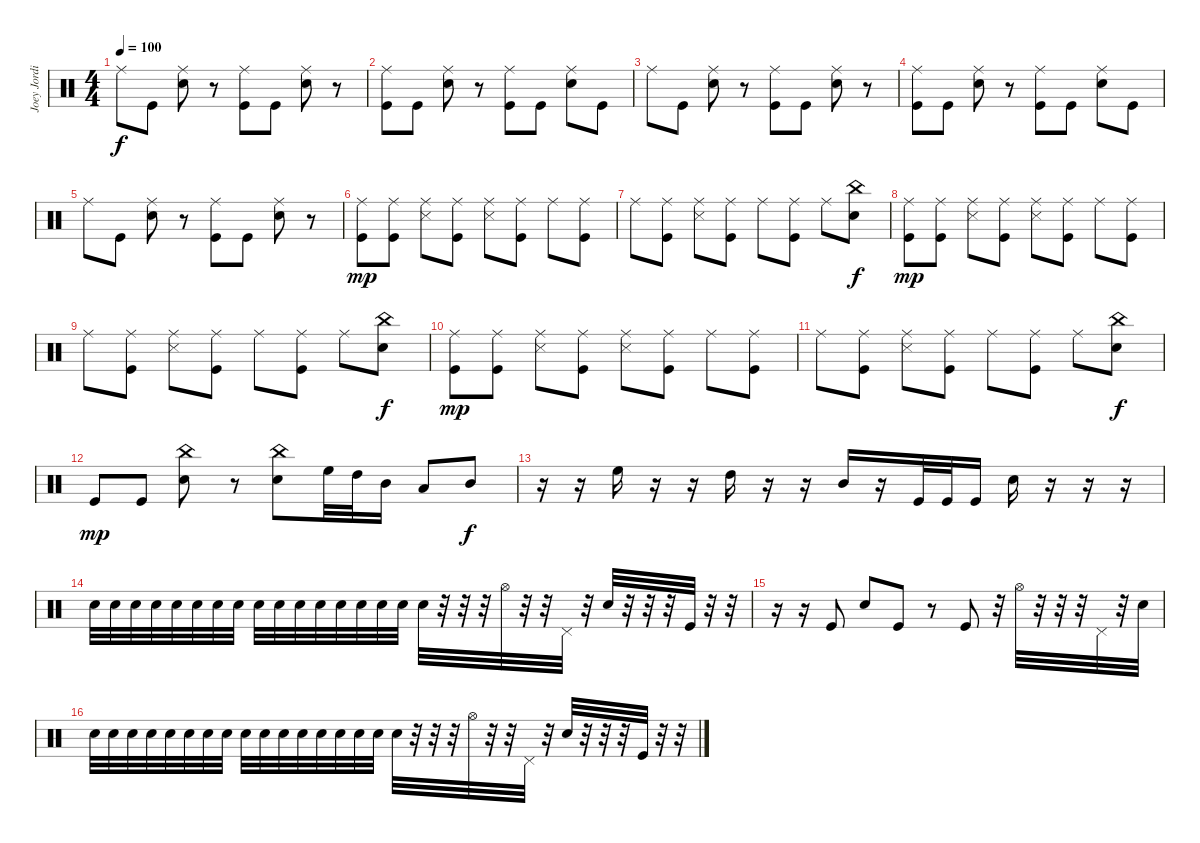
\track ("Joey Jordison" "Joey Jordi") {instrument percussion}
\staff {score}
\articulation defaults
\ts (4 4)
\tempo 100
\clef neutral
\ks c "Ride (middle)".8{dy f} "Kick (hit)".8
("Snare (hit) 2" "Ride (middle)").8 r.8 ("Kick (hit)" "Ride (middle)").8 "Kick (hit)".8 ("Snare (hit) 2" "Ride (middle)").8 r.8 |
("Kick (hit)" "Ride (middle)").8 "Kick (hit)".8 ("Snare (hit) 2" "Ride (middle)").8 r.8 ("Kick (hit)" "Ride (middle)").8 "Kick (hit)".8 ("Snare (hit) 2" "Ride (middle)").8 "Kick (hit)".8 |
"Ride (middle)".8 "Kick (hit)".8 ("Snare (hit) 2" "Ride (middle)").8 r.8 ("Kick (hit)" "Ride (middle)").8 "Kick (hit)".8 ("Snare (hit) 2" "Ride (middle)").8 r.8 |
("Kick (hit)" "Ride (middle)").8 "Kick (hit)".8 ("Snare (hit) 2" "Ride (middle)").8 r.8 ("Kick (hit)" "Ride (middle)").8 "Kick (hit)".8 ("Snare (hit) 2" "Ride (middle)").8 "Kick (hit)".8 |
"Ride (middle)".8 "Kick (hit)".8 ("Snare (hit) 2" "Ride (middle)").8 r.8 ("Kick (hit)" "Ride (middle)").8 "Kick (hit)".8 ("Snare (hit) 2" "Ride (middle)").8 r.8 |
("Kick (hit)" "Ride (middle)").8{dy mp} ("Kick (hit)" "Ride (middle)").8 ("Snare (side stick) 3" "Ride (middle)").8 ("Kick (hit)" "Ride (middle)").8 ("Snare (side stick) 3" "Ride (middle)").8 ("Kick (hit)" "Ride (middle)").8 "Ride (middle)".8 ("Kick (hit)" "Ride (middle)").8 |
"Ride (middle)".8 ("Kick (hit)" "Ride (middle)").8 ("Snare (side stick) 3" "Ride (middle)").8 ("Kick (hit)" "Ride (middle)").8 "Ride (middle)".8 ("Kick (hit)" "Ride (middle)").8 "Ride (middle)".8 ("Snare (hit) 2" "China (hit)").8{dy f} |
("Kick (hit)" "Ride (middle)").8{dy mp} ("Kick (hit)" "Ride (middle)").8 ("Snare (side stick) 3" "Ride (middle)").8 ("Kick (hit)" "Ride (middle)").8 ("Snare (side stick) 3" "Ride (middle)").8 ("Kick (hit)" "Ride (middle)").8 "Ride (middle)".8 ("Kick (hit)" "Ride (middle)").8 |
"Ride (middle)".8 ("Kick (hit)" "Ride (middle)").8 ("Snare (side stick) 3" "Ride (middle)").8 ("Kick (hit)" "Ride (middle)").8 "Ride (middle)".8 ("Kick (hit)" "Ride (middle)").8 "Ride (middle)".8 ("Snare (hit) 2" "China (hit)").8{dy f} |
("Kick (hit)" "Ride (middle)").8{dy mp} ("Kick (hit)" "Ride (middle)").8 ("Snare (side stick) 3" "Ride (middle)").8 ("Kick (hit)" "Ride (middle)").8 ("Snare (side stick) 3" "Ride (middle)").8 ("Kick (hit)" "Ride (middle)").8 "Ride (middle)".8 ("Kick (hit)" "Ride (middle)").8 |
"Ride (middle)".8 ("Kick (hit)" "Ride (middle)").8 ("Snare (side stick) 3" "Ride (middle)").8 ("Kick (hit)" "Ride (middle)").8 "Ride (middle)".8 ("Kick (hit)" "Ride (middle)").8 "Ride (middle)".8 ("Snare (hit) 2" "China (hit)").8{dy f} |
"Kick (hit)".8{dy mp} "Kick (hit)".8 ("Snare (hit) 2" "China (hit)").8 r.8 ("Snare (hit) 2" "China (hit)").8 "High Floor Tom (hit)".32 "High Tom (hit)".32 "Mid Tom (hit)".16 "Low Tom (hit)".8 "Mid Tom (hit)".8{dy f} |
r.16 r.16 "High Floor Tom (hit)".16 r.16 r.16 "High Tom (hit)".16 r.16 r.16 "Mid Tom (hit)".16 r.16 "Kick (hit)".32 "Kick (hit)".32 "Kick (hit)".16 "Snare (hit) 2".16 r.16 r.16 r.16 |
"Snare (hit) 2".32 "Snare (hit) 2".32 "Snare (hit) 2".32 "Snare (hit) 2".32 "Snare (hit) 2".32 "Snare (hit) 2".32 "Snare (hit) 2".32 "Snare (hit) 2".32 "Snare (hit) 2".32 "Snare (hit) 2".32 "Snare (hit) 2".32 "Snare (hit) 2".32 "Snare (hit) 2".32 "Snare (hit) 2".32 "Snare (hit) 2".32 "Snare (hit) 2".32 "Snare (hit) 2".32 r.32 r.32 r.32 "Hi-Hat (open)".32 r.32 r.32 "Pedal Hi-Hat (hit)".32 r.32 "Snare (hit) 2".32 r.32 r.32 r.32 "Kick (hit)".32 r.32 r.32 |
r.16 r.16 "Kick (hit)".8 "Snare (hit) 2".8 "Kick (hit)".8 r.8 "Kick (hit)".8 r.32 "Hi-Hat (open)".32 r.32 r.32 r.32 "Pedal Hi-Hat (hit)".32 r.32 "Snare (hit) 2".32 |
"Snare (hit) 2".32 "Snare (hit) 2".32 "Snare (hit) 2".32 "Snare (hit) 2".32 "Snare (hit) 2".32 "Snare (hit) 2".32 "Snare (hit) 2".32 "Snare (hit) 2".32 "Snare (hit) 2".32 "Snare (hit) 2".32 "Snare (hit) 2".32 "Snare (hit) 2".32 "Snare (hit) 2".32 "Snare (hit) 2".32 "Snare (hit) 2".32 "Snare (hit) 2".32 "Snare (hit) 2".32 r.32 r.32 r.32 "Hi-Hat (open)".32 r.32 r.32 "Pedal Hi-Hat (hit)".32 r.32 "Snare (hit) 2".32 r.32 r.32 r.32 "Kick (hit)".32 r.32 r.32
